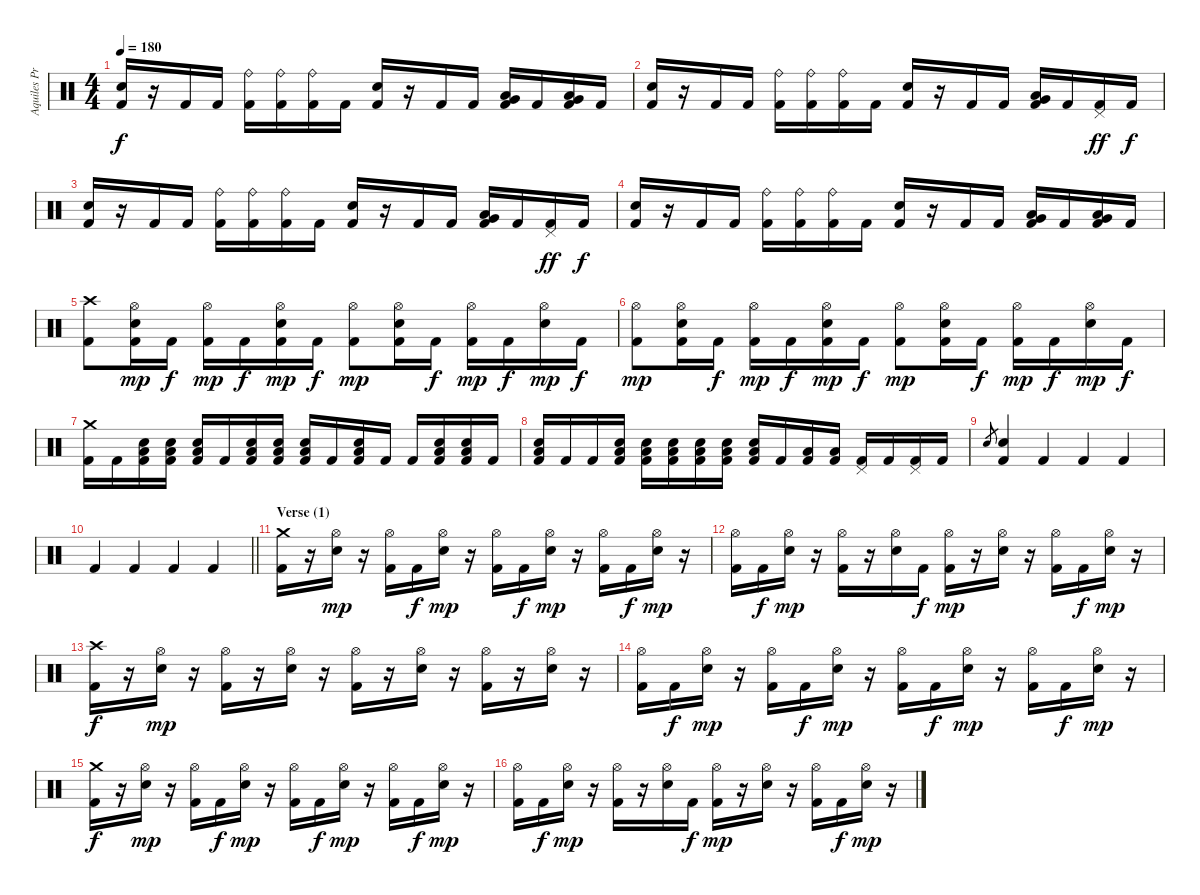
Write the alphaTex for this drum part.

\track ("Aquiles Priester" "Aquiles Pr") {instrument percussion}
\staff {score}
\articulation defaults
\ts (4 4)
\tempo 180
\clef neutral
\ks c
("Snare (hit) 2" "Kick (hit) 2").16{dy f} r.16 "Kick (hit) 2".16 "Kick (hit) 2".16 ("Ride (bell)" "Kick (hit) 2").16 ("Ride (bell)" "Kick (hit) 2").16 ("Ride (bell)" "Kick (hit) 2").16 "Kick (hit) 2".16 ("Snare (hit) 2" "Kick (hit) 2").16 r.16 "Kick (hit) 2".16 "Kick (hit) 2".16 ("Very Low Tom (hit)" "Low Floor Tom (hit)" "Kick (hit) 2").16 "Kick (hit) 2".16 ("Very Low Tom (hit)" "Low Floor Tom (hit)" "Kick (hit) 2").16 "Kick (hit) 2".16 |
("Snare (hit) 2" "Kick (hit) 2").16 r.16 "Kick (hit) 2".16 "Kick (hit) 2".16 ("Ride (bell)" "Kick (hit) 2").16 ("Ride (bell)" "Kick (hit) 2").16 ("Ride (bell)" "Kick (hit) 2").16 "Kick (hit) 2".16 ("Snare (hit) 2" "Kick (hit) 2").16 r.16 "Kick (hit) 2".16 "Kick (hit) 2".16 ("Very Low Tom (hit)" "Low Floor Tom (hit)" "Kick (hit) 2").16 "Kick (hit) 2".16 ("Pedal Hi-Hat (hit)" "Kick (hit) 2").16{dy ff} "Kick (hit) 2".16{dy f} |
("Snare (hit) 2" "Kick (hit) 2").16 r.16 "Kick (hit) 2".16 "Kick (hit) 2".16 ("Ride (bell)" "Kick (hit) 2").16 ("Ride (bell)" "Kick (hit) 2").16 ("Ride (bell)" "Kick (hit) 2").16 "Kick (hit) 2".16 ("Snare (hit) 2" "Kick (hit) 2").16 r.16 "Kick (hit) 2".16 "Kick (hit) 2".16 ("Very Low Tom (hit)" "Low Floor Tom (hit)" "Kick (hit) 2").16 "Kick (hit) 2".16 ("Pedal Hi-Hat (hit)" "Kick (hit) 2").16{dy ff} "Kick (hit) 2".16{dy f} |
("Snare (hit) 2" "Kick (hit) 2").16 r.16 "Kick (hit) 2".16 "Kick (hit) 2".16 ("Ride (bell)" "Kick (hit) 2").16 ("Ride (bell)" "Kick (hit) 2").16 ("Ride (bell)" "Kick (hit) 2").16 "Kick (hit) 2".16 ("Snare (hit) 2" "Kick (hit) 2").16 r.16 "Kick (hit) 2".16 "Kick (hit) 2".16 ("Very Low Tom (hit)" "Low Floor Tom (hit)" "Kick (hit) 2").16 "Kick (hit) 2".16 ("Very Low Tom (hit)" "Low Floor Tom (hit)" "Kick (hit) 2").16 "Kick (hit) 2".16 |
("Crash high (hit)" "Kick (hit) 2").8 ("Hi-Hat (open)" "Snare (hit) 2" "Kick (hit) 2").16{dy mp} "Kick (hit) 2".16{dy f} ("Hi-Hat (open)" "Kick (hit) 2").16{dy mp} "Kick (hit) 2".16{dy f} ("Hi-Hat (open)" "Snare (hit) 2" "Kick (hit) 2").16{dy mp} "Kick (hit) 2".16{dy f} ("Hi-Hat (open)" "Kick (hit) 2").8{dy mp} ("Hi-Hat (open)" "Snare (hit) 2" "Kick (hit) 2").16 "Kick (hit) 2".16{dy f} ("Hi-Hat (open)" "Kick (hit) 2").16{dy mp} "Kick (hit) 2".16{dy f} ("Hi-Hat (open)" "Snare (hit) 2").16{dy mp} "Kick (hit) 2".16{dy f} |
("Hi-Hat (open)" "Kick (hit) 2").8{dy mp} ("Hi-Hat (open)" "Snare (hit) 2" "Kick (hit) 2").16 "Kick (hit) 2".16{dy f} ("Hi-Hat (open)" "Kick (hit) 2").16{dy mp} "Kick (hit) 2".16{dy f} ("Hi-Hat (open)" "Snare (hit) 2" "Kick (hit) 2").16{dy mp} "Kick (hit) 2".16{dy f} ("Hi-Hat (open)" "Kick (hit) 2").8{dy mp} ("Hi-Hat (open)" "Snare (hit) 2" "Kick (hit) 2").16 "Kick (hit) 2".16{dy f} ("Hi-Hat (open)" "Kick (hit) 2").16{dy mp} "Kick (hit) 2".16{dy f} ("Hi-Hat (open)" "Snare (hit) 2").16{dy mp} "Kick (hit) 2".16{dy f} |
("Crash medium (hit)" "Kick (hit) 2").16 "Kick (hit) 2".16 ("Low Floor Tom (hit)" "Snare (hit) 2" "Kick (hit) 2").16 ("Low Floor Tom (hit)" "Snare (hit) 2" "Kick (hit) 2").16 ("Low Floor Tom (hit)" "Snare (hit) 2" "Kick (hit) 2").16 "Kick (hit) 2".16 ("Low Floor Tom (hit)" "Snare (hit) 2" "Kick (hit) 2").16 ("Low Floor Tom (hit)" "Snare (hit) 2" "Kick (hit) 2").16 ("Low Floor Tom (hit)" "Snare (hit) 2" "Kick (hit) 2").16 "Kick (hit) 2".16 ("Low Floor Tom (hit)" "Snare (hit) 2" "Kick (hit) 2").16 "Kick (hit) 2".16 "Kick (hit) 2".16 ("Low Floor Tom (hit)" "Snare (hit) 2" "Kick (hit) 2").16 ("Low Floor Tom (hit)" "Snare (hit) 2" "Kick (hit) 2").16 "Kick (hit) 2".16 |
("Low Floor Tom (hit)" "Snare (hit) 2" "Kick (hit) 2").16 "Kick (hit) 2".16 "Kick (hit) 2".16 ("Low Floor Tom (hit)" "Snare (hit) 2" "Kick (hit) 2").16 ("Low Floor Tom (hit)" "Snare (hit) 2" "Kick (hit) 2").16 ("Low Floor Tom (hit)" "Snare (hit) 2" "Kick (hit) 2").16 ("Low Floor Tom (hit)" "Snare (hit) 2" "Kick (hit) 2").16 ("Low Floor Tom (hit)" "Snare (hit) 2" "Kick (hit) 2").16 ("Low Floor Tom (hit)" "Snare (hit) 2" "Kick (hit) 2").16 "Kick (hit) 2".16 ("Low Tom (hit)" "Kick (hit) 2").16 ("Low Tom (hit)" "Kick (hit) 2").16 ("Pedal Hi-Hat (hit)" "Kick (hit) 2").16 "Kick (hit) 2".16 ("Pedal Hi-Hat (hit)" "Kick (hit) 2").16 "Kick (hit) 2".16 |
"Snare (hit) 2".8{gr} ("Snare (hit) 2" "Kick (hit) 2").4 "Kick (hit) 2".4 "Kick (hit) 2".4 "Kick (hit) 2".4 |
\barLineRight lightlight "Kick (hit) 2".4 "Kick (hit) 2".4 "Kick (hit) 2".4 "Kick (hit) 2".4
|
\section ("" "Verse (1)")
("Crash medium (hit)" "Kick (hit) 2").16 r.16 ("Hi-Hat (open)" "Snare (hit) 2").16{dy mp} r.16 ("Hi-Hat (open)" "Kick (hit) 2").16 "Kick (hit) 2".16{dy f} ("Hi-Hat (open)" "Snare (hit) 2").16{dy mp} r.16 ("Hi-Hat (open)" "Kick (hit) 2").16 "Kick (hit) 2".16{dy f} ("Hi-Hat (open)" "Snare (hit) 2").16{dy mp} r.16 ("Hi-Hat (open)" "Kick (hit) 2").16 "Kick (hit) 2".16{dy f} ("Hi-Hat (open)" "Snare (hit) 2").16{dy mp} r.16 |
("Hi-Hat (open)" "Kick (hit) 2").16 "Kick (hit) 2".16{dy f} ("Hi-Hat (open)" "Snare (hit) 2").16{dy mp} r.16 ("Hi-Hat (open)" "Kick (hit) 2").16 r.16 ("Hi-Hat (open)" "Snare (hit) 2").16 "Kick (hit) 2".16{dy f} ("Hi-Hat (open)" "Kick (hit) 2").16{dy mp} r.16 ("Hi-Hat (open)" "Snare (hit) 2").16 r.16 ("Hi-Hat (open)" "Kick (hit) 2").16 "Kick (hit) 2".16{dy f} ("Hi-Hat (open)" "Snare (hit) 2").16{dy mp} r.16 |
("Crash high (hit)" "Kick (hit) 2").16{dy f} r.16 ("Hi-Hat (open)" "Snare (hit) 2").16{dy mp} r.16 ("Hi-Hat (open)" "Kick (hit) 2").16 r.16 ("Hi-Hat (open)" "Snare (hit) 2").16 r.16 ("Hi-Hat (open)" "Kick (hit) 2").16 r.16 ("Hi-Hat (open)" "Snare (hit) 2").16 r.16 ("Hi-Hat (open)" "Kick (hit) 2").16 r.16 ("Hi-Hat (open)" "Snare (hit) 2").16 r.16 |
("Hi-Hat (open)" "Kick (hit) 2").16 "Kick (hit) 2".16{dy f} ("Hi-Hat (open)" "Snare (hit) 2").16{dy mp} r.16 ("Hi-Hat (open)" "Kick (hit) 2").16 "Kick (hit) 2".16{dy f} ("Hi-Hat (open)" "Snare (hit) 2").16{dy mp} r.16 ("Hi-Hat (open)" "Kick (hit) 2").16 "Kick (hit) 2".16{dy f} ("Hi-Hat (open)" "Snare (hit) 2").16{dy mp} r.16 ("Hi-Hat (open)" "Kick (hit) 2").16 "Kick (hit) 2".16{dy f} ("Hi-Hat (open)" "Snare (hit) 2").16{dy mp} r.16 |
("Crash medium (hit)" "Kick (hit) 2").16{dy f} r.16 ("Hi-Hat (open)" "Snare (hit) 2").16{dy mp} r.16 ("Hi-Hat (open)" "Kick (hit) 2").16 "Kick (hit) 2".16{dy f} ("Hi-Hat (open)" "Snare (hit) 2").16{dy mp} r.16 ("Hi-Hat (open)" "Kick (hit) 2").16 "Kick (hit) 2".16{dy f} ("Hi-Hat (open)" "Snare (hit) 2").16{dy mp} r.16 ("Hi-Hat (open)" "Kick (hit) 2").16 "Kick (hit) 2".16{dy f} ("Hi-Hat (open)" "Snare (hit) 2").16{dy mp} r.16 |
("Hi-Hat (open)" "Kick (hit) 2").16 "Kick (hit) 2".16{dy f} ("Hi-Hat (open)" "Snare (hit) 2").16{dy mp} r.16 ("Hi-Hat (open)" "Kick (hit) 2").16 r.16 ("Hi-Hat (open)" "Snare (hit) 2").16 "Kick (hit) 2".16{dy f} ("Hi-Hat (open)" "Kick (hit) 2").16{dy mp} r.16 ("Hi-Hat (open)" "Snare (hit) 2").16 r.16 ("Hi-Hat (open)" "Kick (hit) 2").16 "Kick (hit) 2".16{dy f} ("Hi-Hat (open)" "Snare (hit) 2").16{dy mp} r.16
